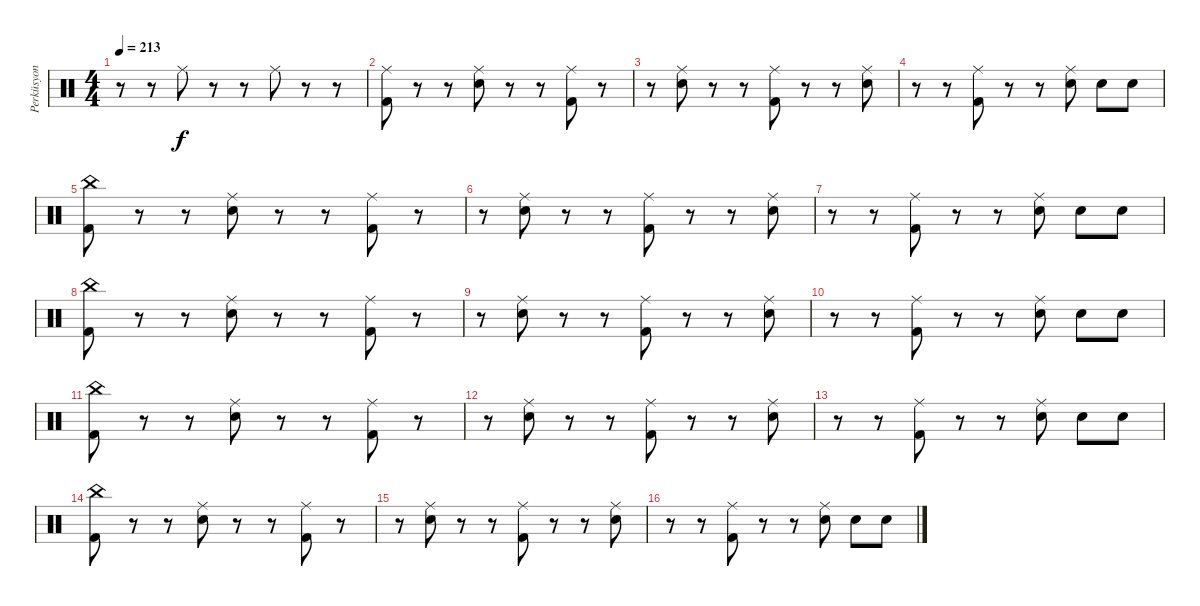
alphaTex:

\track ("Perküsyon" "Perküsyon") {instrument percussion}
\staff {score}
\articulation defaults
\ts (4 4)
\tempo 213
\clef neutral
\ks c
r.8{dy f} r.8 "Ride (middle)".8 r.8 r.8 "Ride (middle)".8 r.8 r.8 |
("Ride (middle)" "Kick (hit) 2").8 r.8 r.8 ("Ride (middle)" "Electric Snare (hit)").8 r.8 r.8 ("Ride (middle)" "Kick (hit) 2").8 r.8 |
r.8 ("Ride (middle)" "Electric Snare (hit)").8 r.8 r.8 ("Ride (middle)" "Kick (hit) 2").8 r.8 r.8 ("Ride (middle)" "Electric Snare (hit)").8 |
r.8 r.8 ("Ride (middle)" "Kick (hit) 2").8 r.8 r.8 ("Ride (middle)" "Electric Snare (hit)").8 "Electric Snare (hit)".8 "Electric Snare (hit)".8 |
("China (hit)" "Kick (hit) 2").8 r.8 r.8 ("Ride (middle)" "Electric Snare (hit)").8 r.8 r.8 ("Ride (middle)" "Kick (hit) 2").8 r.8 |
r.8 ("Ride (middle)" "Electric Snare (hit)").8 r.8 r.8 ("Ride (middle)" "Kick (hit) 2").8 r.8 r.8 ("Ride (middle)" "Electric Snare (hit)").8 |
r.8 r.8 ("Ride (middle)" "Kick (hit) 2").8 r.8 r.8 ("Ride (middle)" "Electric Snare (hit)").8 "Electric Snare (hit)".8 "Electric Snare (hit)".8 |
("China (hit)" "Kick (hit) 2").8 r.8 r.8 ("Ride (middle)" "Electric Snare (hit)").8 r.8 r.8 ("Ride (middle)" "Kick (hit) 2").8 r.8 |
r.8 ("Ride (middle)" "Electric Snare (hit)").8 r.8 r.8 ("Ride (middle)" "Kick (hit) 2").8 r.8 r.8 ("Ride (middle)" "Electric Snare (hit)").8 |
r.8 r.8 ("Ride (middle)" "Kick (hit) 2").8 r.8 r.8 ("Ride (middle)" "Electric Snare (hit)").8 "Electric Snare (hit)".8 "Electric Snare (hit)".8 |
("China (hit)" "Kick (hit) 2").8 r.8 r.8 ("Ride (middle)" "Electric Snare (hit)").8 r.8 r.8 ("Ride (middle)" "Kick (hit) 2").8 r.8 |
r.8 ("Ride (middle)" "Electric Snare (hit)").8 r.8 r.8 ("Ride (middle)" "Kick (hit) 2").8 r.8 r.8 ("Ride (middle)" "Electric Snare (hit)").8 |
r.8 r.8 ("Ride (middle)" "Kick (hit) 2").8 r.8 r.8 ("Ride (middle)" "Electric Snare (hit)").8 "Electric Snare (hit)".8 "Electric Snare (hit)".8 |
("China (hit)" "Kick (hit) 2").8 r.8 r.8 ("Ride (middle)" "Electric Snare (hit)").8 r.8 r.8 ("Ride (middle)" "Kick (hit) 2").8 r.8 |
r.8 ("Ride (middle)" "Electric Snare (hit)").8 r.8 r.8 ("Ride (middle)" "Kick (hit) 2").8 r.8 r.8 ("Ride (middle)" "Electric Snare (hit)").8 |
r.8 r.8 ("Ride (middle)" "Kick (hit) 2").8 r.8 r.8 ("Ride (middle)" "Electric Snare (hit)").8 "Electric Snare (hit)".8 "Electric Snare (hit)".8
